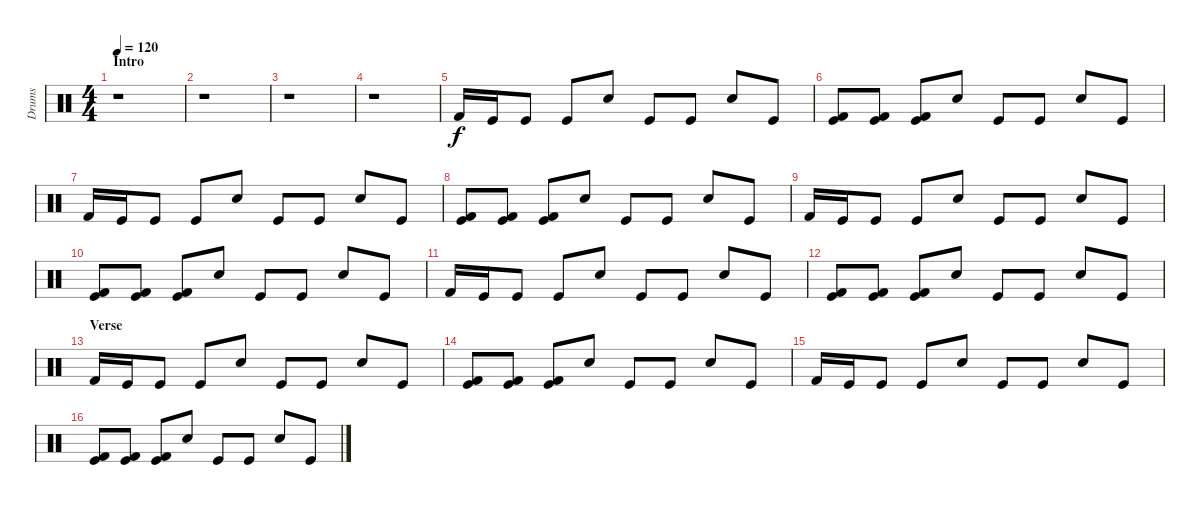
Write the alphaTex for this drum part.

\track ("Drums" "Drums") {instrument percussion}
\staff {score}
\articulation defaults
\ts (4 4)
\section ("" "Intro")
\tempo 120
\clef neutral
\ks c
r.1{dy f} |
r.1 |
r.1 |
r.1 |
"Kick (hit) 2".16 "Kick (hit)".16 "Kick (hit)".8 "Kick (hit)".8 "Electric Snare (hit)".8 "Kick (hit)".8 "Kick (hit)".8 "Electric Snare (hit)".8 "Kick (hit)".8 |
("Kick (hit) 2" "Kick (hit)").8 ("Kick (hit) 2" "Kick (hit)").8 ("Kick (hit) 2" "Kick (hit)").8 "Electric Snare (hit)".8 "Kick (hit)".8 "Kick (hit)".8 "Electric Snare (hit)".8 "Kick (hit)".8 |
"Kick (hit) 2".16 "Kick (hit)".16 "Kick (hit)".8 "Kick (hit)".8 "Electric Snare (hit)".8 "Kick (hit)".8 "Kick (hit)".8 "Electric Snare (hit)".8 "Kick (hit)".8 |
("Kick (hit) 2" "Kick (hit)").8 ("Kick (hit) 2" "Kick (hit)").8 ("Kick (hit) 2" "Kick (hit)").8 "Electric Snare (hit)".8 "Kick (hit)".8 "Kick (hit)".8 "Electric Snare (hit)".8 "Kick (hit)".8 |
"Kick (hit) 2".16 "Kick (hit)".16 "Kick (hit)".8 "Kick (hit)".8 "Electric Snare (hit)".8 "Kick (hit)".8 "Kick (hit)".8 "Electric Snare (hit)".8 "Kick (hit)".8 |
("Kick (hit) 2" "Kick (hit)").8 ("Kick (hit) 2" "Kick (hit)").8 ("Kick (hit) 2" "Kick (hit)").8 "Electric Snare (hit)".8 "Kick (hit)".8 "Kick (hit)".8 "Electric Snare (hit)".8 "Kick (hit)".8 |
"Kick (hit) 2".16 "Kick (hit)".16 "Kick (hit)".8 "Kick (hit)".8 "Electric Snare (hit)".8 "Kick (hit)".8 "Kick (hit)".8 "Electric Snare (hit)".8 "Kick (hit)".8 |
("Kick (hit) 2" "Kick (hit)").8 ("Kick (hit) 2" "Kick (hit)").8 ("Kick (hit) 2" "Kick (hit)").8 "Electric Snare (hit)".8 "Kick (hit)".8 "Kick (hit)".8 "Electric Snare (hit)".8 "Kick (hit)".8 |
\section ("" "Verse")
"Kick (hit) 2".16 "Kick (hit)".16 "Kick (hit)".8 "Kick (hit)".8 "Electric Snare (hit)".8 "Kick (hit)".8 "Kick (hit)".8 "Electric Snare (hit)".8 "Kick (hit)".8 |
("Kick (hit) 2" "Kick (hit)").8 ("Kick (hit) 2" "Kick (hit)").8 ("Kick (hit) 2" "Kick (hit)").8 "Electric Snare (hit)".8 "Kick (hit)".8 "Kick (hit)".8 "Electric Snare (hit)".8 "Kick (hit)".8 |
"Kick (hit) 2".16 "Kick (hit)".16 "Kick (hit)".8 "Kick (hit)".8 "Electric Snare (hit)".8 "Kick (hit)".8 "Kick (hit)".8 "Electric Snare (hit)".8 "Kick (hit)".8 |
("Kick (hit) 2" "Kick (hit)").8 ("Kick (hit) 2" "Kick (hit)").8 ("Kick (hit) 2" "Kick (hit)").8 "Electric Snare (hit)".8 "Kick (hit)".8 "Kick (hit)".8 "Electric Snare (hit)".8 "Kick (hit)".8
